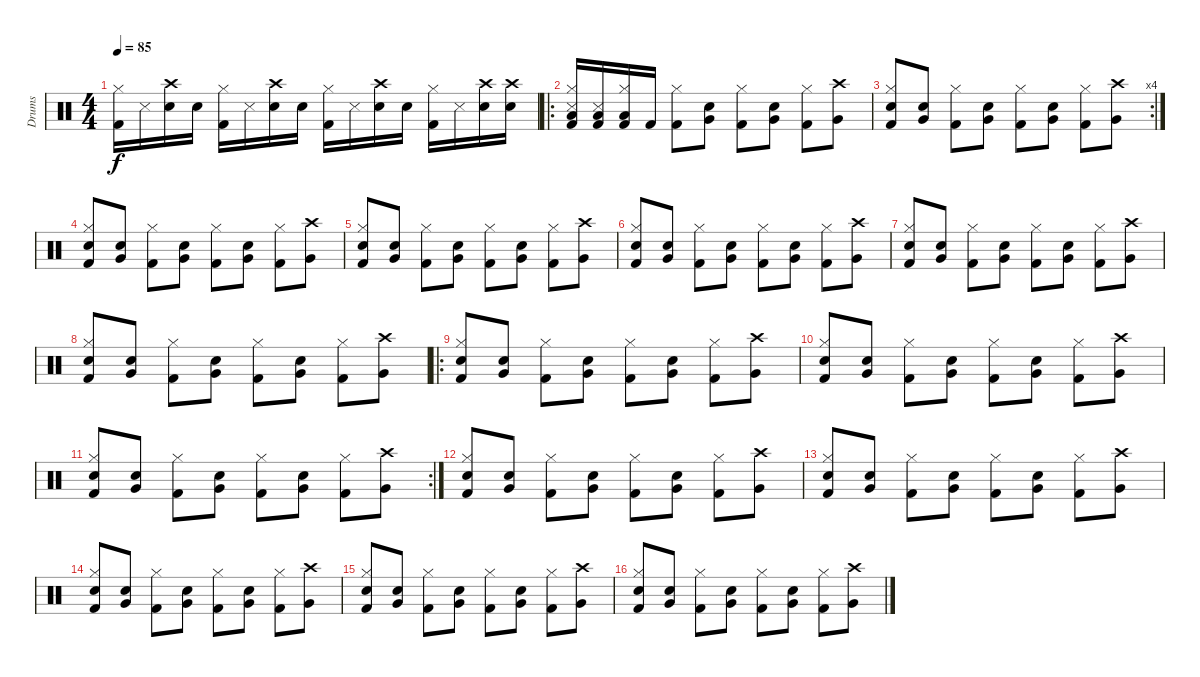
\track ("Drums" "Drums") {instrument percussion}
\staff {score}
\articulation defaults
\ts (4 4)
\tempo 85
\clef neutral
\ks c
("Kick (hit) 2" "Hi-Hat (closed)").16{dy f} "Snare (side stick) 3".16 ("Snare (hit) 2" "Crash high (hit)").16 "Electric Snare (hit)".16 ("Kick (hit) 2" "Hi-Hat (closed)").16 "Snare (side stick) 3".16 ("Snare (hit) 2" "Crash high (hit)").16 "Electric Snare (hit)".16 ("Kick (hit) 2" "Hi-Hat (closed)").16 "Snare (side stick) 3".16 ("Snare (hit) 2" "Crash high (hit)").16 "Electric Snare (hit)".16 ("Kick (hit) 2" "Hi-Hat (closed)").16 "Snare (side stick) 3".16 ("Snare (hit) 2" "Crash high (hit)").16 ("Electric Snare (hit)" "Crash high (hit)").16 |
\ro
("Kick (hit) 2" "Hi-Hat (closed)" "Low Floor Tom (hit)" "Snare (side stick) 3").16 ("Kick (hit) 2" "Low Floor Tom (hit)" "Snare (side stick) 3").16 ("Kick (hit) 2" "Hi-Hat (closed)" "Low Floor Tom (hit)").16 "Kick (hit) 2".16 ("Kick (hit) 2" "Hi-Hat (closed)").8 ("Very Low Tom (hit)" "Snare (hit) 2").8 ("Kick (hit) 2" "Hi-Hat (closed)").8 ("Very Low Tom (hit)" "Snare (hit) 2").8 ("Kick (hit) 2" "Hi-Hat (closed)").8 ("Very Low Tom (hit)" "Crash high (hit)").8 |
\rc 4
("Kick (hit) 2" "Hi-Hat (closed)" "Snare (hit) 2").8 ("Very Low Tom (hit)" "Snare (hit) 2").8 ("Kick (hit) 2" "Hi-Hat (closed)").8 ("Very Low Tom (hit)" "Snare (hit) 2").8 ("Kick (hit) 2" "Hi-Hat (closed)").8 ("Very Low Tom (hit)" "Snare (hit) 2").8 ("Kick (hit) 2" "Hi-Hat (closed)").8 ("Very Low Tom (hit)" "Crash high (hit)").8 |
("Kick (hit) 2" "Hi-Hat (closed)" "Snare (hit) 2").8 ("Very Low Tom (hit)" "Snare (hit) 2").8 ("Kick (hit) 2" "Hi-Hat (closed)").8 ("Very Low Tom (hit)" "Snare (hit) 2").8 ("Kick (hit) 2" "Hi-Hat (closed)").8 ("Very Low Tom (hit)" "Snare (hit) 2").8 ("Kick (hit) 2" "Hi-Hat (closed)").8 ("Very Low Tom (hit)" "Crash high (hit)").8 |
("Kick (hit) 2" "Hi-Hat (closed)" "Snare (hit) 2").8 ("Very Low Tom (hit)" "Snare (hit) 2").8 ("Kick (hit) 2" "Hi-Hat (closed)").8 ("Very Low Tom (hit)" "Snare (hit) 2").8 ("Kick (hit) 2" "Hi-Hat (closed)").8 ("Very Low Tom (hit)" "Snare (hit) 2").8 ("Kick (hit) 2" "Hi-Hat (closed)").8 ("Very Low Tom (hit)" "Crash high (hit)").8 |
("Kick (hit) 2" "Hi-Hat (closed)" "Snare (hit) 2").8 ("Very Low Tom (hit)" "Snare (hit) 2").8 ("Kick (hit) 2" "Hi-Hat (closed)").8 ("Very Low Tom (hit)" "Snare (hit) 2").8 ("Kick (hit) 2" "Hi-Hat (closed)").8 ("Very Low Tom (hit)" "Snare (hit) 2").8 ("Kick (hit) 2" "Hi-Hat (closed)").8 ("Very Low Tom (hit)" "Crash high (hit)").8 |
("Kick (hit) 2" "Hi-Hat (closed)" "Snare (hit) 2").8 ("Very Low Tom (hit)" "Snare (hit) 2").8 ("Kick (hit) 2" "Hi-Hat (closed)").8 ("Very Low Tom (hit)" "Snare (hit) 2").8 ("Kick (hit) 2" "Hi-Hat (closed)").8 ("Very Low Tom (hit)" "Snare (hit) 2").8 ("Kick (hit) 2" "Hi-Hat (closed)").8 ("Very Low Tom (hit)" "Crash high (hit)").8 |
("Kick (hit) 2" "Hi-Hat (closed)" "Snare (hit) 2").8 ("Very Low Tom (hit)" "Snare (hit) 2").8 ("Kick (hit) 2" "Hi-Hat (closed)").8 ("Very Low Tom (hit)" "Snare (hit) 2").8 ("Kick (hit) 2" "Hi-Hat (closed)").8 ("Very Low Tom (hit)" "Snare (hit) 2").8 ("Kick (hit) 2" "Hi-Hat (closed)").8 ("Very Low Tom (hit)" "Crash high (hit)").8 |
\ro
("Kick (hit) 2" "Hi-Hat (closed)" "Snare (hit) 2").8 ("Very Low Tom (hit)" "Snare (hit) 2").8 ("Kick (hit) 2" "Hi-Hat (closed)").8 ("Very Low Tom (hit)" "Snare (hit) 2").8 ("Kick (hit) 2" "Hi-Hat (closed)").8 ("Very Low Tom (hit)" "Snare (hit) 2").8 ("Kick (hit) 2" "Hi-Hat (closed)").8 ("Very Low Tom (hit)" "Crash high (hit)").8 |
("Kick (hit) 2" "Hi-Hat (closed)" "Snare (hit) 2").8 ("Very Low Tom (hit)" "Snare (hit) 2").8 ("Kick (hit) 2" "Hi-Hat (closed)").8 ("Very Low Tom (hit)" "Snare (hit) 2").8 ("Kick (hit) 2" "Hi-Hat (closed)").8 ("Very Low Tom (hit)" "Snare (hit) 2").8 ("Kick (hit) 2" "Hi-Hat (closed)").8 ("Very Low Tom (hit)" "Crash high (hit)").8 |
\rc 2
("Kick (hit) 2" "Hi-Hat (closed)" "Snare (hit) 2").8 ("Very Low Tom (hit)" "Snare (hit) 2").8 ("Kick (hit) 2" "Hi-Hat (closed)").8 ("Very Low Tom (hit)" "Snare (hit) 2").8 ("Kick (hit) 2" "Hi-Hat (closed)").8 ("Very Low Tom (hit)" "Snare (hit) 2").8 ("Kick (hit) 2" "Hi-Hat (closed)").8 ("Very Low Tom (hit)" "Crash high (hit)").8 |
("Kick (hit) 2" "Hi-Hat (closed)" "Snare (hit) 2").8 ("Very Low Tom (hit)" "Snare (hit) 2").8 ("Kick (hit) 2" "Hi-Hat (closed)").8 ("Very Low Tom (hit)" "Snare (hit) 2").8 ("Kick (hit) 2" "Hi-Hat (closed)").8 ("Very Low Tom (hit)" "Snare (hit) 2").8 ("Kick (hit) 2" "Hi-Hat (closed)").8 ("Very Low Tom (hit)" "Crash high (hit)").8 |
("Kick (hit) 2" "Hi-Hat (closed)" "Snare (hit) 2").8 ("Very Low Tom (hit)" "Snare (hit) 2").8 ("Kick (hit) 2" "Hi-Hat (closed)").8 ("Very Low Tom (hit)" "Snare (hit) 2").8 ("Kick (hit) 2" "Hi-Hat (closed)").8 ("Very Low Tom (hit)" "Snare (hit) 2").8 ("Kick (hit) 2" "Hi-Hat (closed)").8 ("Very Low Tom (hit)" "Crash high (hit)").8 |
("Kick (hit) 2" "Hi-Hat (closed)" "Snare (hit) 2").8 ("Very Low Tom (hit)" "Snare (hit) 2").8 ("Kick (hit) 2" "Hi-Hat (closed)").8 ("Very Low Tom (hit)" "Snare (hit) 2").8 ("Kick (hit) 2" "Hi-Hat (closed)").8 ("Very Low Tom (hit)" "Snare (hit) 2").8 ("Kick (hit) 2" "Hi-Hat (closed)").8 ("Very Low Tom (hit)" "Crash high (hit)").8 |
("Kick (hit) 2" "Hi-Hat (closed)" "Snare (hit) 2").8 ("Very Low Tom (hit)" "Snare (hit) 2").8 ("Kick (hit) 2" "Hi-Hat (closed)").8 ("Very Low Tom (hit)" "Snare (hit) 2").8 ("Kick (hit) 2" "Hi-Hat (closed)").8 ("Very Low Tom (hit)" "Snare (hit) 2").8 ("Kick (hit) 2" "Hi-Hat (closed)").8 ("Very Low Tom (hit)" "Crash high (hit)").8 |
("Kick (hit) 2" "Hi-Hat (closed)" "Snare (hit) 2").8 ("Very Low Tom (hit)" "Snare (hit) 2").8 ("Kick (hit) 2" "Hi-Hat (closed)").8 ("Very Low Tom (hit)" "Snare (hit) 2").8 ("Kick (hit) 2" "Hi-Hat (closed)").8 ("Very Low Tom (hit)" "Snare (hit) 2").8 ("Kick (hit) 2" "Hi-Hat (closed)").8 ("Very Low Tom (hit)" "Crash high (hit)").8
